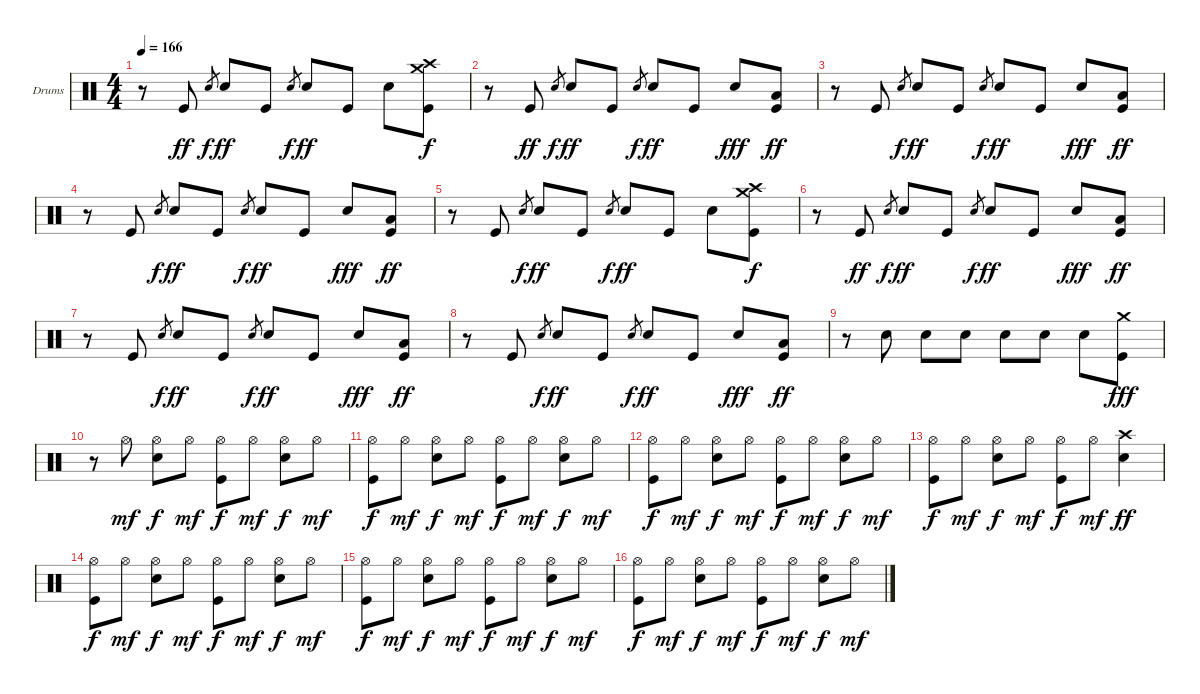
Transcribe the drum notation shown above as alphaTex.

\defaultSystemsLayout 4
\bracketExtendMode groupsimilarinstruments
\firstSystemTrackNameOrientation horizontal
\otherSystemsTrackNameOrientation horizontal
\track ("Lars Ulrich" "Drums") {instrument percussion}
\staff {score}
\articulation defaults
\ts (4 4)
\tempo 166
\clef neutral
\scale
0.333333
\ks c
r.8{dy ff} "Kick (hit)".8 "Snare (hit) 2".8{gr dy f} "Snare (hit) 2".8{dy ff} "Kick (hit)".8 "Snare (hit) 2".8{gr dy f} "Snare (hit) 2".8{dy ff} "Kick (hit)".8 "Snare (hit) 2".8 ("Crash high (hit)" "Crash medium (hit)" "Kick (hit)").8{dy f} |
\scale
0.333333 r.8 "Kick (hit)".8{dy ff} "Snare (hit) 2".8{gr dy f} "Snare (hit) 2".8{dy ff} "Kick (hit)".8 "Snare (hit) 2".8{gr dy f} "Snare (hit) 2".8{dy ff} "Kick (hit)".8 "Snare (hit) 2".8{dy fff} ("Low Tom (hit)" "Kick (hit)").8{dy ff} |
\scale
0.333333 r.8 "Kick (hit)".8 "Snare (hit) 2".8{gr dy f} "Snare (hit) 2".8{dy ff} "Kick (hit)".8 "Snare (hit) 2".8{gr dy f} "Snare (hit) 2".8{dy ff} "Kick (hit)".8 "Snare (hit) 2".8{dy fff} ("Low Tom (hit)" "Kick (hit)").8{dy ff} |
\scale
0.333333 r.8 "Kick (hit)".8 "Snare (hit) 2".8{gr dy f} "Snare (hit) 2".8{dy ff} "Kick (hit)".8 "Snare (hit) 2".8{gr dy f} "Snare (hit) 2".8{dy ff} "Kick (hit)".8 "Snare (hit) 2".8{dy fff} ("Low Tom (hit)" "Kick (hit)").8{dy ff} |
\scale
0.333333 r.8 "Kick (hit)".8 "Snare (hit) 2".8{gr dy f} "Snare (hit) 2".8{dy ff} "Kick (hit)".8 "Snare (hit) 2".8{gr dy f} "Snare (hit) 2".8{dy ff} "Kick (hit)".8 "Snare (hit) 2".8 ("Crash high (hit)" "Crash medium (hit)" "Kick (hit)").8{dy f} |
\scale
0.333333 r.8 "Kick (hit)".8{dy ff} "Snare (hit) 2".8{gr dy f} "Snare (hit) 2".8{dy ff} "Kick (hit)".8 "Snare (hit) 2".8{gr dy f} "Snare (hit) 2".8{dy ff} "Kick (hit)".8 "Snare (hit) 2".8{dy fff} ("Low Tom (hit)" "Kick (hit)").8{dy ff} |
\scale
0.333333 r.8 "Kick (hit)".8 "Snare (hit) 2".8{gr dy f} "Snare (hit) 2".8{dy ff} "Kick (hit)".8 "Snare (hit) 2".8{gr dy f} "Snare (hit) 2".8{dy ff} "Kick (hit)".8 "Snare (hit) 2".8{dy fff} ("Low Tom (hit)" "Kick (hit)").8{dy ff} |
\scale
0.333333 r.8 "Kick (hit)".8 "Snare (hit) 2".8{gr dy f} "Snare (hit) 2".8{dy ff} "Kick (hit)".8 "Snare (hit) 2".8{gr dy f} "Snare (hit) 2".8{dy ff} "Kick (hit)".8 "Snare (hit) 2".8{dy fff} ("Low Tom (hit)" "Kick (hit)").8{dy ff} |
\scale
0.333333 r.8 "Snare (hit) 2".8 "Snare (hit) 2".8 "Snare (hit) 2".8 "Snare (hit) 2".8 "Snare (hit) 2".8 "Snare (hit) 2".8 ("Crash medium (hit)" "Kick (hit)").8{dy fff} |
\scale
0.333333 r.8 "Hi-Hat (open)".8{dy mf} ("Hi-Hat (open)" "Snare (hit) 2").8{dy f} "Hi-Hat (open)".8{dy mf} ("Hi-Hat (open)" "Kick (hit)").8{dy f} "Hi-Hat (open)".8{dy mf} ("Hi-Hat (open)" "Snare (hit) 2").8{dy f} "Hi-Hat (open)".8{dy mf} |
\scale
0.333333 ("Hi-Hat (open)" "Kick (hit)").8{dy f} "Hi-Hat (open)".8{dy mf} ("Hi-Hat (open)" "Snare (hit) 2").8{dy f} "Hi-Hat (open)".8{dy mf} ("Hi-Hat (open)" "Kick (hit)").8{dy f} "Hi-Hat (open)".8{dy mf} ("Hi-Hat (open)" "Snare (hit) 2").8{dy f} "Hi-Hat (open)".8{dy mf} |
\scale
0.333333 ("Hi-Hat (open)" "Kick (hit)").8{dy f} "Hi-Hat (open)".8{dy mf} ("Hi-Hat (open)" "Snare (hit) 2").8{dy f} "Hi-Hat (open)".8{dy mf} ("Hi-Hat (open)" "Kick (hit)").8{dy f} "Hi-Hat (open)".8{dy mf} ("Hi-Hat (open)" "Snare (hit) 2").8{dy f} "Hi-Hat (open)".8{dy mf} |
\scale
0.333333 ("Hi-Hat (open)" "Kick (hit)").8{dy f} "Hi-Hat (open)".8{dy mf} ("Hi-Hat (open)" "Snare (hit) 2").8{dy f} "Hi-Hat (open)".8{dy mf} ("Hi-Hat (open)" "Kick (hit)").8{dy f} "Hi-Hat (open)".8{dy mf} ("Crash high (hit)" "Snare (hit) 2").4{dy ff} |
\scale
0.333333 ("Hi-Hat (open)" "Kick (hit)").8{dy f} "Hi-Hat (open)".8{dy mf} ("Hi-Hat (open)" "Snare (hit) 2").8{dy f} "Hi-Hat (open)".8{dy mf} ("Hi-Hat (open)" "Kick (hit)").8{dy f} "Hi-Hat (open)".8{dy mf} ("Hi-Hat (open)" "Snare (hit) 2").8{dy f} "Hi-Hat (open)".8{dy mf} |
\scale
0.333333 ("Hi-Hat (open)" "Kick (hit)").8{dy f} "Hi-Hat (open)".8{dy mf} ("Hi-Hat (open)" "Snare (hit) 2").8{dy f} "Hi-Hat (open)".8{dy mf} ("Hi-Hat (open)" "Kick (hit)").8{dy f} "Hi-Hat (open)".8{dy mf} ("Hi-Hat (open)" "Snare (hit) 2").8{dy f} "Hi-Hat (open)".8{dy mf} |
\scale
0.333333 ("Hi-Hat (open)" "Kick (hit)").8{dy f} "Hi-Hat (open)".8{dy mf} ("Hi-Hat (open)" "Snare (hit) 2").8{dy f} "Hi-Hat (open)".8{dy mf} ("Hi-Hat (open)" "Kick (hit)").8{dy f} "Hi-Hat (open)".8{dy mf} ("Hi-Hat (open)" "Snare (hit) 2").8{dy f} "Hi-Hat (open)".8{dy mf}
